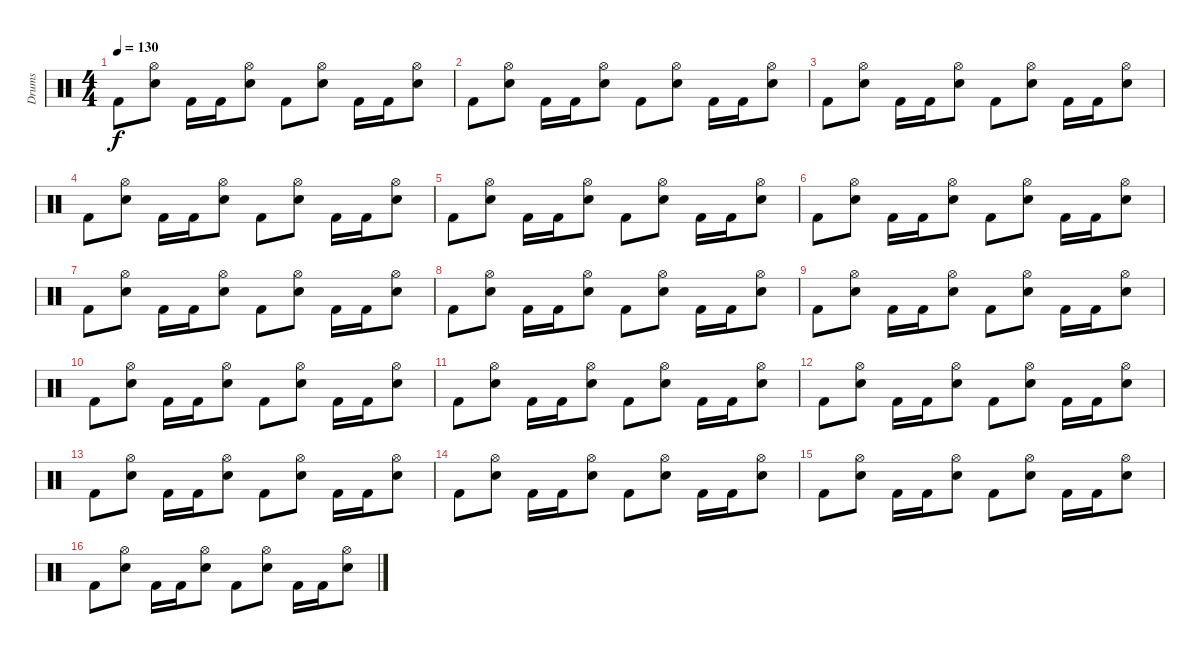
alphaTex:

\track ("Drums" "Drums") {instrument percussion}
\staff {score}
\articulation defaults
\ts (4 4)
\tempo 130
\clef neutral
\ks c "Kick (hit) 2".8{dy f}
("Hi-Hat (open)" "Snare (hit) 2").8 "Kick (hit) 2".16 "Kick (hit) 2".16 ("Hi-Hat (open)" "Snare (hit) 2").8 "Kick (hit) 2".8 ("Hi-Hat (open)" "Snare (hit) 2").8 "Kick (hit) 2".16 "Kick (hit) 2".16 ("Hi-Hat (open)" "Snare (hit) 2").8 |
"Kick (hit) 2".8 ("Hi-Hat (open)" "Snare (hit) 2").8 "Kick (hit) 2".16 "Kick (hit) 2".16 ("Hi-Hat (open)" "Snare (hit) 2").8 "Kick (hit) 2".8 ("Hi-Hat (open)" "Snare (hit) 2").8 "Kick (hit) 2".16 "Kick (hit) 2".16 ("Hi-Hat (open)" "Snare (hit) 2").8 |
"Kick (hit) 2".8 ("Hi-Hat (open)" "Snare (hit) 2").8 "Kick (hit) 2".16 "Kick (hit) 2".16 ("Hi-Hat (open)" "Snare (hit) 2").8 "Kick (hit) 2".8 ("Hi-Hat (open)" "Snare (hit) 2").8 "Kick (hit) 2".16 "Kick (hit) 2".16 ("Hi-Hat (open)" "Snare (hit) 2").8 |
"Kick (hit) 2".8 ("Hi-Hat (open)" "Snare (hit) 2").8 "Kick (hit) 2".16 "Kick (hit) 2".16 ("Hi-Hat (open)" "Snare (hit) 2").8 "Kick (hit) 2".8 ("Hi-Hat (open)" "Snare (hit) 2").8 "Kick (hit) 2".16 "Kick (hit) 2".16 ("Hi-Hat (open)" "Snare (hit) 2").8 |
"Kick (hit) 2".8 ("Hi-Hat (open)" "Snare (hit) 2").8 "Kick (hit) 2".16 "Kick (hit) 2".16 ("Hi-Hat (open)" "Snare (hit) 2").8 "Kick (hit) 2".8 ("Hi-Hat (open)" "Snare (hit) 2").8 "Kick (hit) 2".16 "Kick (hit) 2".16 ("Hi-Hat (open)" "Snare (hit) 2").8 |
"Kick (hit) 2".8 ("Hi-Hat (open)" "Snare (hit) 2").8 "Kick (hit) 2".16 "Kick (hit) 2".16 ("Hi-Hat (open)" "Snare (hit) 2").8 "Kick (hit) 2".8 ("Hi-Hat (open)" "Snare (hit) 2").8 "Kick (hit) 2".16 "Kick (hit) 2".16 ("Hi-Hat (open)" "Snare (hit) 2").8 |
"Kick (hit) 2".8 ("Hi-Hat (open)" "Snare (hit) 2").8 "Kick (hit) 2".16 "Kick (hit) 2".16 ("Hi-Hat (open)" "Snare (hit) 2").8 "Kick (hit) 2".8 ("Hi-Hat (open)" "Snare (hit) 2").8 "Kick (hit) 2".16 "Kick (hit) 2".16 ("Hi-Hat (open)" "Snare (hit) 2").8 |
"Kick (hit) 2".8 ("Hi-Hat (open)" "Snare (hit) 2").8 "Kick (hit) 2".16 "Kick (hit) 2".16 ("Hi-Hat (open)" "Snare (hit) 2").8 "Kick (hit) 2".8 ("Hi-Hat (open)" "Snare (hit) 2").8 "Kick (hit) 2".16 "Kick (hit) 2".16 ("Hi-Hat (open)" "Snare (hit) 2").8 |
"Kick (hit) 2".8 ("Hi-Hat (open)" "Snare (hit) 2").8 "Kick (hit) 2".16 "Kick (hit) 2".16 ("Hi-Hat (open)" "Snare (hit) 2").8 "Kick (hit) 2".8 ("Hi-Hat (open)" "Snare (hit) 2").8 "Kick (hit) 2".16 "Kick (hit) 2".16 ("Hi-Hat (open)" "Snare (hit) 2").8 |
"Kick (hit) 2".8 ("Hi-Hat (open)" "Snare (hit) 2").8 "Kick (hit) 2".16 "Kick (hit) 2".16 ("Hi-Hat (open)" "Snare (hit) 2").8 "Kick (hit) 2".8 ("Hi-Hat (open)" "Snare (hit) 2").8 "Kick (hit) 2".16 "Kick (hit) 2".16 ("Snare (hit) 2" "Hi-Hat (open)").8 |
"Kick (hit) 2".8 ("Hi-Hat (open)" "Snare (hit) 2").8 "Kick (hit) 2".16 "Kick (hit) 2".16 ("Hi-Hat (open)" "Snare (hit) 2").8 "Kick (hit) 2".8 ("Hi-Hat (open)" "Snare (hit) 2").8 "Kick (hit) 2".16 "Kick (hit) 2".16 ("Hi-Hat (open)" "Snare (hit) 2").8 |
"Kick (hit) 2".8 ("Hi-Hat (open)" "Snare (hit) 2").8 "Kick (hit) 2".16 "Kick (hit) 2".16 ("Hi-Hat (open)" "Snare (hit) 2").8 "Kick (hit) 2".8 ("Hi-Hat (open)" "Snare (hit) 2").8 "Kick (hit) 2".16 "Kick (hit) 2".16 ("Hi-Hat (open)" "Snare (hit) 2").8 |
"Kick (hit) 2".8 ("Hi-Hat (open)" "Snare (hit) 2").8 "Kick (hit) 2".16 "Kick (hit) 2".16 ("Hi-Hat (open)" "Snare (hit) 2").8 "Kick (hit) 2".8 ("Hi-Hat (open)" "Snare (hit) 2").8 "Kick (hit) 2".16 "Kick (hit) 2".16 ("Hi-Hat (open)" "Snare (hit) 2").8 |
"Kick (hit) 2".8 ("Hi-Hat (open)" "Snare (hit) 2").8 "Kick (hit) 2".16 "Kick (hit) 2".16 ("Hi-Hat (open)" "Snare (hit) 2").8 "Kick (hit) 2".8 ("Hi-Hat (open)" "Snare (hit) 2").8 "Kick (hit) 2".16 "Kick (hit) 2".16 ("Hi-Hat (open)" "Snare (hit) 2").8 |
"Kick (hit) 2".8 ("Hi-Hat (open)" "Snare (hit) 2").8 "Kick (hit) 2".16 "Kick (hit) 2".16 ("Hi-Hat (open)" "Snare (hit) 2").8 "Kick (hit) 2".8 ("Hi-Hat (open)" "Snare (hit) 2").8 "Kick (hit) 2".16 "Kick (hit) 2".16 ("Hi-Hat (open)" "Snare (hit) 2").8 |
"Kick (hit) 2".8 ("Hi-Hat (open)" "Snare (hit) 2").8 "Kick (hit) 2".16 "Kick (hit) 2".16 ("Hi-Hat (open)" "Snare (hit) 2").8 "Kick (hit) 2".8 ("Hi-Hat (open)" "Snare (hit) 2").8 "Kick (hit) 2".16 "Kick (hit) 2".16 ("Hi-Hat (open)" "Snare (hit) 2").8
